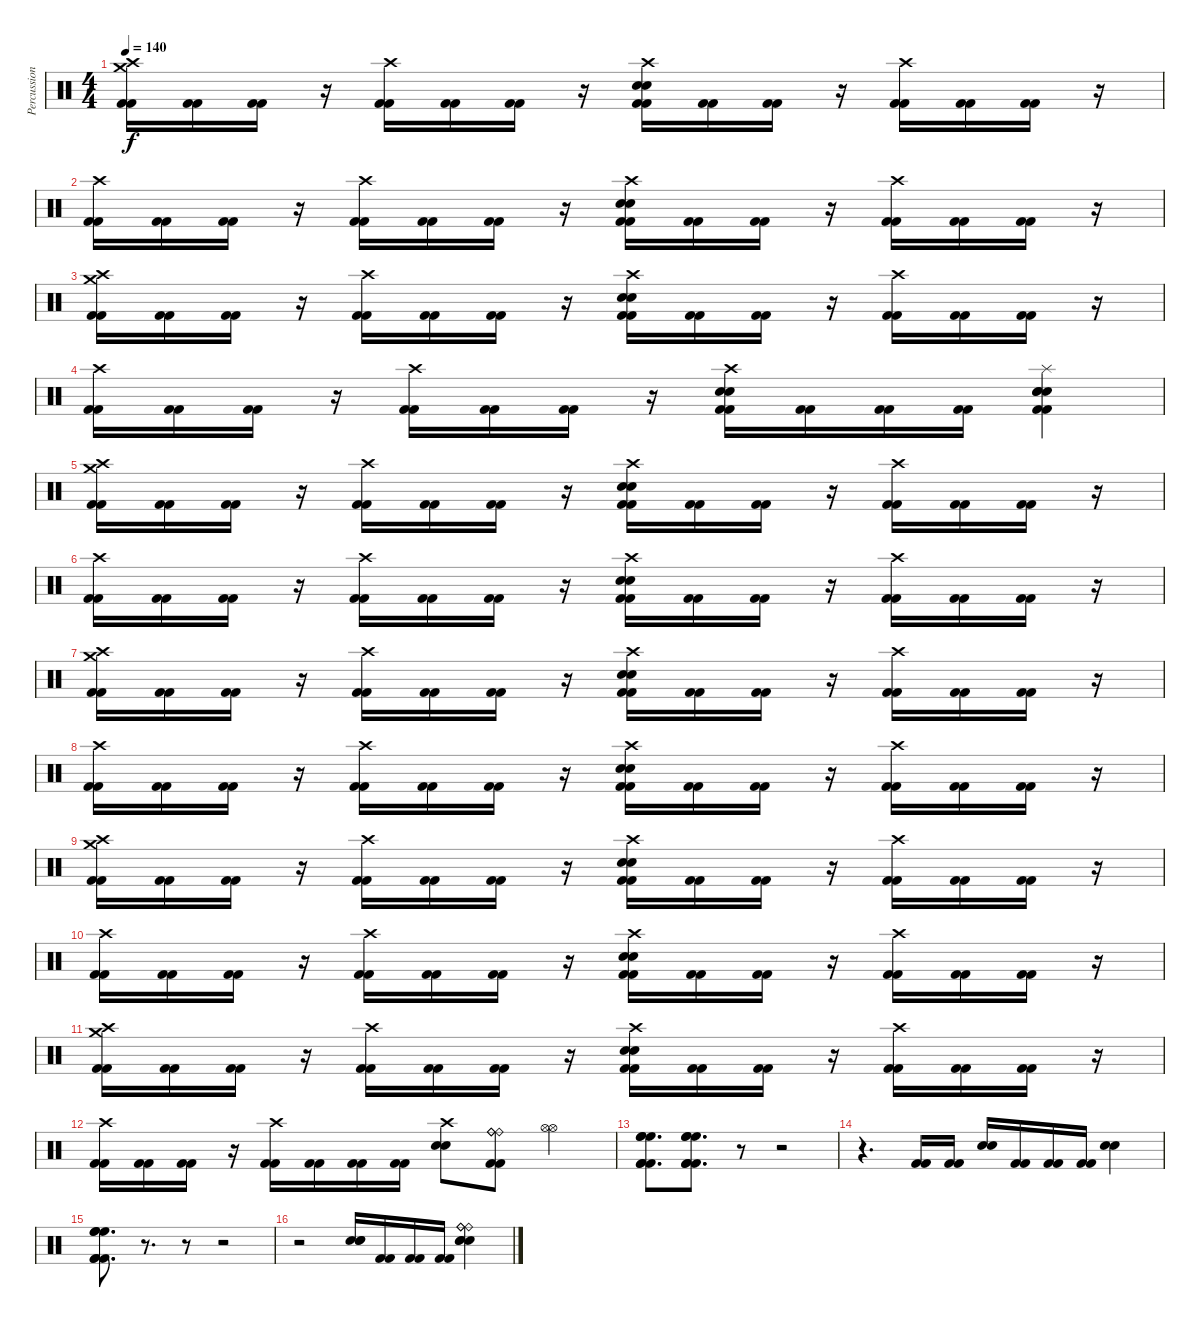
\track ("Percussions" "Percussion") {instrument percussion}
\staff {score}
\articulation defaults
\ts (4 4)
\tempo 140
\clef neutral
\ks c
("Crash high (hit)" "Crash medium (hit)" "Kick (hit) 2" "Kick (hit) 2").16{dy f} ("Kick (hit) 2" "Kick (hit) 2").16 ("Kick (hit) 2" "Kick (hit) 2").16 r.16 ("Crash high (hit)" "Kick (hit) 2" "Kick (hit) 2").16 ("Kick (hit) 2" "Kick (hit) 2").16 ("Kick (hit) 2" "Kick (hit) 2").16 r.16 ("Crash high (hit)" "Electric Snare (hit)" "Electric Snare (hit)" "Kick (hit) 2" "Kick (hit) 2").16 ("Kick (hit) 2" "Kick (hit) 2").16 ("Kick (hit) 2" "Kick (hit) 2").16 r.16 ("Crash high (hit)" "Kick (hit) 2" "Kick (hit) 2").16 ("Kick (hit) 2" "Kick (hit) 2").16 ("Kick (hit) 2" "Kick (hit) 2").16 r.16 |
("Crash high (hit)" "Kick (hit) 2" "Kick (hit) 2").16 ("Kick (hit) 2" "Kick (hit) 2").16 ("Kick (hit) 2" "Kick (hit) 2").16 r.16 ("Crash high (hit)" "Kick (hit) 2" "Kick (hit) 2").16 ("Kick (hit) 2" "Kick (hit) 2").16 ("Kick (hit) 2" "Kick (hit) 2").16 r.16 ("Crash high (hit)" "Electric Snare (hit)" "Electric Snare (hit)" "Kick (hit) 2" "Kick (hit) 2").16 ("Kick (hit) 2" "Kick (hit) 2").16 ("Kick (hit) 2" "Kick (hit) 2").16 r.16 ("Crash high (hit)" "Kick (hit) 2" "Kick (hit) 2").16 ("Kick (hit) 2" "Kick (hit) 2").16 ("Kick (hit) 2" "Kick (hit) 2").16 r.16 |
("Crash high (hit)" "Crash medium (hit)" "Kick (hit) 2" "Kick (hit) 2").16 ("Kick (hit) 2" "Kick (hit) 2").16 ("Kick (hit) 2" "Kick (hit) 2").16 r.16 ("Crash high (hit)" "Kick (hit) 2" "Kick (hit) 2").16 ("Kick (hit) 2" "Kick (hit) 2").16 ("Kick (hit) 2" "Kick (hit) 2").16 r.16 ("Crash high (hit)" "Electric Snare (hit)" "Electric Snare (hit)" "Kick (hit) 2" "Kick (hit) 2").16 ("Kick (hit) 2" "Kick (hit) 2").16 ("Kick (hit) 2" "Kick (hit) 2").16 r.16 ("Crash high (hit)" "Kick (hit) 2" "Kick (hit) 2").16 ("Kick (hit) 2" "Kick (hit) 2").16 ("Kick (hit) 2" "Kick (hit) 2").16 r.16 |
("Crash high (hit)" "Kick (hit) 2" "Kick (hit) 2").16 ("Kick (hit) 2" "Kick (hit) 2").16 ("Kick (hit) 2" "Kick (hit) 2").16 r.16 ("Crash high (hit)" "Kick (hit) 2" "Kick (hit) 2").16 ("Kick (hit) 2" "Kick (hit) 2").16 ("Kick (hit) 2" "Kick (hit) 2").16 r.16 ("Crash high (hit)" "Electric Snare (hit)" "Electric Snare (hit)" "Kick (hit) 2" "Kick (hit) 2").16 ("Kick (hit) 2" "Kick (hit) 2").16 ("Kick (hit) 2" "Kick (hit) 2").16 ("Kick (hit) 2" "Kick (hit) 2").16 ("Splash (hit)" "Electric Snare (hit)" "Electric Snare (hit)" "Electric Snare (hit)" "Kick (hit) 2" "Kick (hit) 2").4 |
("Crash high (hit)" "Crash medium (hit)" "Kick (hit) 2" "Kick (hit) 2").16 ("Kick (hit) 2" "Kick (hit) 2").16 ("Kick (hit) 2" "Kick (hit) 2").16 r.16 ("Crash high (hit)" "Kick (hit) 2" "Kick (hit) 2").16 ("Kick (hit) 2" "Kick (hit) 2").16 ("Kick (hit) 2" "Kick (hit) 2").16 r.16 ("Crash high (hit)" "Electric Snare (hit)" "Electric Snare (hit)" "Kick (hit) 2" "Kick (hit) 2").16 ("Kick (hit) 2" "Kick (hit) 2").16 ("Kick (hit) 2" "Kick (hit) 2").16 r.16 ("Crash high (hit)" "Kick (hit) 2" "Kick (hit) 2").16 ("Kick (hit) 2" "Kick (hit) 2").16 ("Kick (hit) 2" "Kick (hit) 2").16 r.16 |
("Crash high (hit)" "Kick (hit) 2" "Kick (hit) 2").16 ("Kick (hit) 2" "Kick (hit) 2").16 ("Kick (hit) 2" "Kick (hit) 2").16 r.16 ("Crash high (hit)" "Kick (hit) 2" "Kick (hit) 2").16 ("Kick (hit) 2" "Kick (hit) 2").16 ("Kick (hit) 2" "Kick (hit) 2").16 r.16 ("Crash high (hit)" "Electric Snare (hit)" "Electric Snare (hit)" "Kick (hit) 2" "Kick (hit) 2").16 ("Kick (hit) 2" "Kick (hit) 2").16 ("Kick (hit) 2" "Kick (hit) 2").16 r.16 ("Crash high (hit)" "Kick (hit) 2" "Kick (hit) 2").16 ("Kick (hit) 2" "Kick (hit) 2").16 ("Kick (hit) 2" "Kick (hit) 2").16 r.16 |
("Crash high (hit)" "Crash medium (hit)" "Kick (hit) 2" "Kick (hit) 2").16 ("Kick (hit) 2" "Kick (hit) 2").16 ("Kick (hit) 2" "Kick (hit) 2").16 r.16 ("Crash high (hit)" "Kick (hit) 2" "Kick (hit) 2").16 ("Kick (hit) 2" "Kick (hit) 2").16 ("Kick (hit) 2" "Kick (hit) 2").16 r.16 ("Crash high (hit)" "Electric Snare (hit)" "Electric Snare (hit)" "Kick (hit) 2" "Kick (hit) 2").16 ("Kick (hit) 2" "Kick (hit) 2").16 ("Kick (hit) 2" "Kick (hit) 2").16 r.16 ("Crash high (hit)" "Kick (hit) 2" "Kick (hit) 2").16 ("Kick (hit) 2" "Kick (hit) 2").16 ("Kick (hit) 2" "Kick (hit) 2").16 r.16 |
("Crash high (hit)" "Kick (hit) 2" "Kick (hit) 2").16 ("Kick (hit) 2" "Kick (hit) 2").16 ("Kick (hit) 2" "Kick (hit) 2").16 r.16 ("Crash high (hit)" "Kick (hit) 2" "Kick (hit) 2").16 ("Kick (hit) 2" "Kick (hit) 2").16 ("Kick (hit) 2" "Kick (hit) 2").16 r.16 ("Crash high (hit)" "Electric Snare (hit)" "Electric Snare (hit)" "Kick (hit) 2" "Kick (hit) 2").16 ("Kick (hit) 2" "Kick (hit) 2").16 ("Kick (hit) 2" "Kick (hit) 2").16 r.16 ("Crash high (hit)" "Kick (hit) 2" "Kick (hit) 2").16 ("Kick (hit) 2" "Kick (hit) 2").16 ("Kick (hit) 2" "Kick (hit) 2").16 r.16 |
("Crash high (hit)" "Crash medium (hit)" "Kick (hit) 2" "Kick (hit) 2").16 ("Kick (hit) 2" "Kick (hit) 2").16 ("Kick (hit) 2" "Kick (hit) 2").16 r.16 ("Crash high (hit)" "Kick (hit) 2" "Kick (hit) 2").16 ("Kick (hit) 2" "Kick (hit) 2").16 ("Kick (hit) 2" "Kick (hit) 2").16 r.16 ("Crash high (hit)" "Electric Snare (hit)" "Electric Snare (hit)" "Kick (hit) 2" "Kick (hit) 2").16 ("Kick (hit) 2" "Kick (hit) 2").16 ("Kick (hit) 2" "Kick (hit) 2").16 r.16 ("Crash high (hit)" "Kick (hit) 2" "Kick (hit) 2").16 ("Kick (hit) 2" "Kick (hit) 2").16 ("Kick (hit) 2" "Kick (hit) 2").16 r.16 |
("Crash high (hit)" "Kick (hit) 2" "Kick (hit) 2").16 ("Kick (hit) 2" "Kick (hit) 2").16 ("Kick (hit) 2" "Kick (hit) 2").16 r.16 ("Crash high (hit)" "Kick (hit) 2" "Kick (hit) 2").16 ("Kick (hit) 2" "Kick (hit) 2").16 ("Kick (hit) 2" "Kick (hit) 2").16 r.16 ("Crash high (hit)" "Electric Snare (hit)" "Electric Snare (hit)" "Kick (hit) 2" "Kick (hit) 2").16 ("Kick (hit) 2" "Kick (hit) 2").16 ("Kick (hit) 2" "Kick (hit) 2").16 r.16 ("Crash high (hit)" "Kick (hit) 2" "Kick (hit) 2").16 ("Kick (hit) 2" "Kick (hit) 2").16 ("Kick (hit) 2" "Kick (hit) 2").16 r.16 |
("Crash high (hit)" "Crash medium (hit)" "Kick (hit) 2" "Kick (hit) 2").16 ("Kick (hit) 2" "Kick (hit) 2").16 ("Kick (hit) 2" "Kick (hit) 2").16 r.16 ("Crash high (hit)" "Kick (hit) 2" "Kick (hit) 2").16 ("Kick (hit) 2" "Kick (hit) 2").16 ("Kick (hit) 2" "Kick (hit) 2").16 r.16 ("Crash high (hit)" "Electric Snare (hit)" "Electric Snare (hit)" "Kick (hit) 2" "Kick (hit) 2").16 ("Kick (hit) 2" "Kick (hit) 2").16 ("Kick (hit) 2" "Kick (hit) 2").16 r.16 ("Crash high (hit)" "Kick (hit) 2" "Kick (hit) 2").16 ("Kick (hit) 2" "Kick (hit) 2").16 ("Kick (hit) 2" "Kick (hit) 2").16 r.16 |
("Crash high (hit)" "Kick (hit) 2" "Kick (hit) 2").16 ("Kick (hit) 2" "Kick (hit) 2").16 ("Kick (hit) 2" "Kick (hit) 2").16 r.16 ("Crash high (hit)" "Kick (hit) 2" "Kick (hit) 2").16 ("Kick (hit) 2" "Kick (hit) 2").16 ("Kick (hit) 2" "Kick (hit) 2").16 ("Kick (hit) 2" "Kick (hit) 2").16 ("Crash high (hit)" "Electric Snare (hit)" "Electric Snare (hit)").8 ("Ride (bell)" "Ride (bell)" "Ride (bell)" "Kick (hit) 2" "Kick (hit) 2").8 ("Hi-Hat (open)" "Hi-Hat (open)").4 |
("High Floor Tom (hit)" "High Floor Tom (hit)" "High Floor Tom (hit)" "Kick (hit) 2" "Kick (hit) 2" "Kick (hit) 2").8{d} ("High Floor Tom (hit)" "High Floor Tom (hit)" "High Floor Tom (hit)" "Kick (hit) 2" "Kick (hit) 2" "Kick (hit) 2").8{d} r.8 r.2 |
r.4{d} ("Kick (hit) 2" "Kick (hit) 2").16 ("Kick (hit) 2" "Kick (hit) 2").16 ("Electric Snare (hit)" "Electric Snare (hit)").16 ("Kick (hit) 2" "Kick (hit) 2").16 ("Kick (hit) 2" "Kick (hit) 2").16 ("Kick (hit) 2" "Kick (hit) 2").16 ("Electric Snare (hit)" "Electric Snare (hit)").4 |
("High Floor Tom (hit)" "High Floor Tom (hit)" "High Floor Tom (hit)" "Kick (hit) 2" "Kick (hit) 2" "Kick (hit) 2").8{d} r.8{d} r.8 r.2 |
r.2 ("Electric Snare (hit)" "Electric Snare (hit)" "Electric Snare (hit)").16 ("Kick (hit) 2" "Kick (hit) 2").16 ("Kick (hit) 2" "Kick (hit) 2").16 ("Kick (hit) 2" "Kick (hit) 2").16 ("Ride (bell)" "Ride (bell)" "Electric Snare (hit)" "Electric Snare (hit)" "Electric Snare (hit)" "Ride (bell)").4
